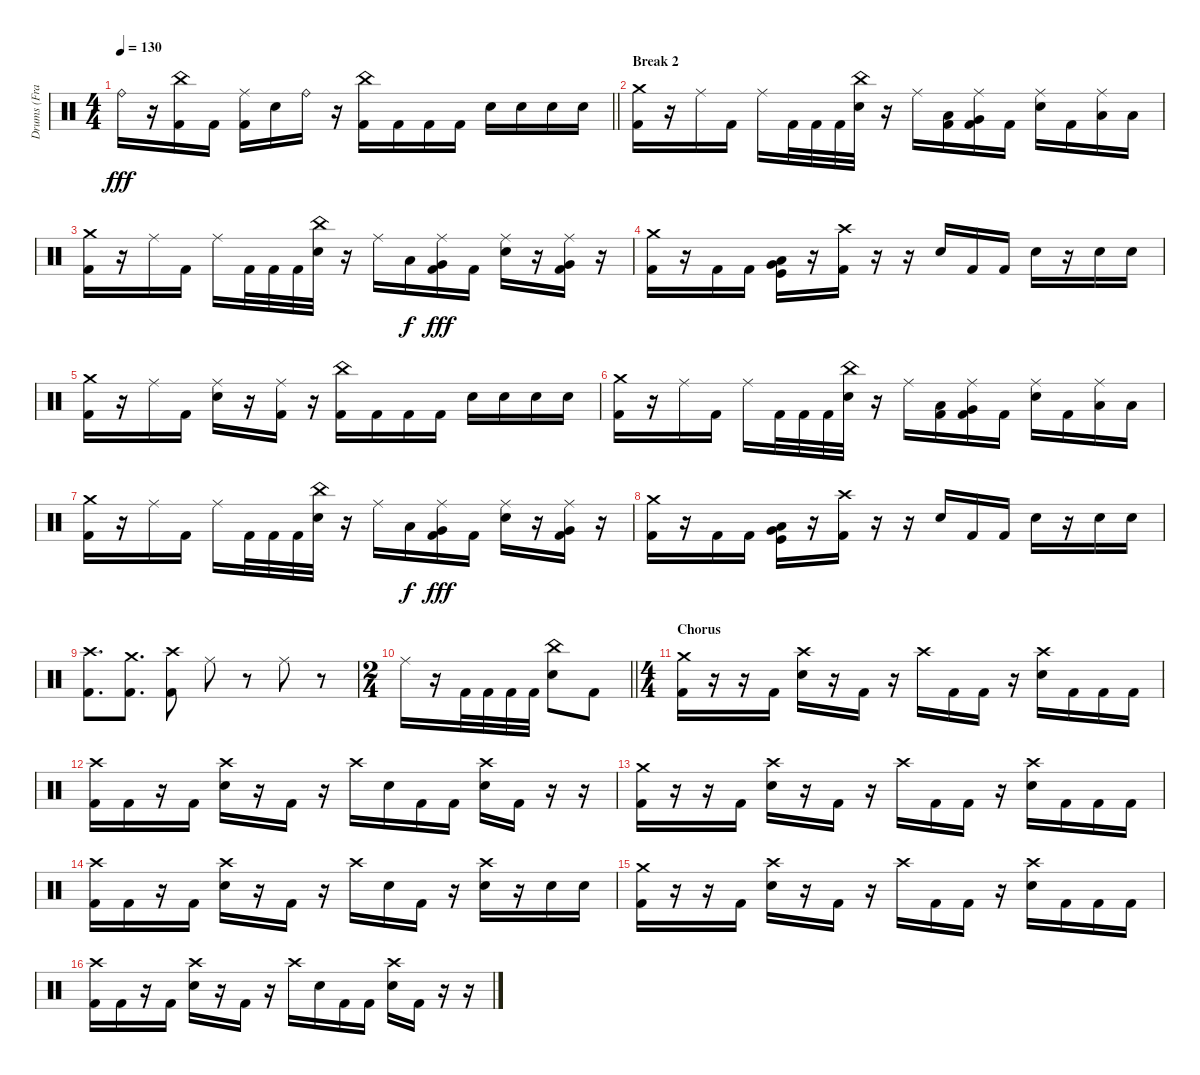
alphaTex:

\track ("Drums (Franky)" "Drums (Fra") {instrument percussion}
\staff {score}
\articulation defaults
\ts (4 4)
\tempo 130
\clef neutral
\barLineRight lightlight
\ks c "Ride (bell)".16{dy fff}
r.16 ("China (hit)" "Kick (hit) 2").16 "Kick (hit) 2".16 ("Ride (middle)" "Kick (hit) 2").16 "Electric Snare (hit)".16 "Ride (bell)".16 r.16 ("China (hit)" "Kick (hit) 2").16 "Kick (hit) 2".16 "Kick (hit) 2".16 "Kick (hit) 2".16 "Electric Snare (hit)".16 "Electric Snare (hit)".16 "Electric Snare (hit)".16 "Electric Snare (hit)".16 |
\section ("" "Break 2")
("Crash medium (hit)" "Kick (hit) 2").16 r.16 "Ride (middle)".16 "Kick (hit) 2".16 "Ride (middle)".16 "Kick (hit) 2".32 "Kick (hit) 2".32 "Kick (hit) 2".32 ("China (hit)" "Electric Snare (hit)").32 r.16 "Ride (middle)".16 ("Low Tom (hit)" "Kick (hit) 2").16 ("Ride (middle)" "Very Low Tom (hit)" "Kick (hit) 2").16 "Kick (hit) 2".16 ("Ride (middle)" "Electric Snare (hit)").16 "Kick (hit) 2".16 ("Ride (middle)" "Low Tom (hit)").16 "Low Tom (hit)".16 |
("Crash medium (hit)" "Kick (hit) 2").16 r.16 "Ride (middle)".16 "Kick (hit) 2".16 "Ride (middle)".16 "Kick (hit) 2".32 "Kick (hit) 2".32 "Kick (hit) 2".32 ("China (hit)" "Electric Snare (hit)").32 r.16 "Ride (middle)".16 "Low Tom (hit)".16{dy f} ("Ride (middle)" "Very Low Tom (hit)" "Kick (hit) 2").16{dy fff} "Kick (hit) 2".16 ("Ride (middle)" "Electric Snare (hit)").16 r.16 ("Ride (middle)" "Very Low Tom (hit)" "Kick (hit) 2").16 r.16 |
("Crash medium (hit)" "Kick (hit) 2").16 r.16 "Kick (hit) 2".16 "Kick (hit) 2".16 ("Low Tom (hit)" "Very Low Tom (hit)" "Kick (hit)").16 r.16 ("Crash high (hit)" "Kick (hit) 2").16 r.16 r.16 "Electric Snare (hit)".16 "Kick (hit) 2".16 "Kick (hit) 2".16 "Electric Snare (hit)".16 r.16 "Electric Snare (hit)".16 "Electric Snare (hit)".16 |
("Crash medium (hit)" "Kick (hit) 2").16 r.16 "Ride (middle)".16 "Kick (hit) 2".16 ("Ride (middle)" "Electric Snare (hit)").16 r.16 ("Ride (middle)" "Kick (hit) 2").16 r.16 ("China (hit)" "Kick (hit) 2").16 "Kick (hit) 2".16 "Kick (hit) 2".16 "Kick (hit) 2".16 "Electric Snare (hit)".16 "Electric Snare (hit)".16 "Electric Snare (hit)".16 "Electric Snare (hit)".16 |
("Crash medium (hit)" "Kick (hit) 2").16 r.16 "Ride (middle)".16 "Kick (hit) 2".16 "Ride (middle)".16 "Kick (hit) 2".32 "Kick (hit) 2".32 "Kick (hit) 2".32 ("China (hit)" "Electric Snare (hit)").32 r.16 "Ride (middle)".16 ("Low Tom (hit)" "Kick (hit) 2").16 ("Ride (middle)" "Very Low Tom (hit)" "Kick (hit) 2").16 "Kick (hit) 2".16 ("Ride (middle)" "Electric Snare (hit)").16 "Kick (hit) 2".16 ("Ride (middle)" "Low Tom (hit)").16 "Low Tom (hit)".16 |
("Crash medium (hit)" "Kick (hit) 2").16 r.16 "Ride (middle)".16 "Kick (hit) 2".16 "Ride (middle)".16 "Kick (hit) 2".32 "Kick (hit) 2".32 "Kick (hit) 2".32 ("China (hit)" "Electric Snare (hit)").32 r.16 "Ride (middle)".16 "Low Tom (hit)".16{dy f} ("Ride (middle)" "Very Low Tom (hit)" "Kick (hit) 2").16{dy fff} "Kick (hit) 2".16 ("Ride (middle)" "Electric Snare (hit)").16 r.16 ("Ride (middle)" "Very Low Tom (hit)" "Kick (hit) 2").16 r.16 |
("Crash medium (hit)" "Kick (hit) 2").16 r.16 "Kick (hit) 2".16 "Kick (hit) 2".16 ("Low Tom (hit)" "Very Low Tom (hit)" "Kick (hit)").16 r.16 ("Crash high (hit)" "Kick (hit) 2").16 r.16 r.16 "Electric Snare (hit)".16 "Kick (hit) 2".16 "Kick (hit) 2".16 "Electric Snare (hit)".16 r.16 "Electric Snare (hit)".16 "Electric Snare (hit)".16 |
("Crash high (hit)" "Kick (hit) 2").8{d} ("Crash medium (hit)" "Kick (hit) 2").8{d} ("Crash high (hit)" "Kick (hit) 2").8 "Ride (middle)".8 r.8 "Ride (middle)".8 r.8 |
\ts (2 4)
\barLineRight lightlight "Ride (middle)".16
r.16 "Kick (hit) 2".32 "Kick (hit) 2".32 "Kick (hit) 2".32 "Kick (hit) 2".32 ("China (hit)" "Electric Snare (hit)").8 "Kick (hit) 2".8 |
\ts (4 4)
\section ("" "Chorus")
("Crash medium (hit)" "Kick (hit) 2").16 r.16 r.16 "Kick (hit) 2".16 ("Crash high (hit)" "Electric Snare (hit)").16 r.16 "Kick (hit) 2".16 r.16 "Crash high (hit)".16 "Kick (hit) 2".16 "Kick (hit) 2".16 r.16 ("Crash high (hit)" "Electric Snare (hit)").16 "Kick (hit) 2".16 "Kick (hit) 2".16 "Kick (hit) 2".16 |
("Crash high (hit)" "Kick (hit) 2").16 "Kick (hit) 2".16 r.16 "Kick (hit) 2".16 ("Crash high (hit)" "Electric Snare (hit)").16 r.16 "Kick (hit) 2".16 r.16 "Crash high (hit)".16 "Electric Snare (hit)".16 "Kick (hit) 2".16 "Kick (hit) 2".16 ("Crash high (hit)" "Electric Snare (hit)").16 "Kick (hit) 2".16 r.16 r.16 |
("Crash medium (hit)" "Kick (hit) 2").16 r.16 r.16 "Kick (hit) 2".16 ("Crash high (hit)" "Electric Snare (hit)").16 r.16 "Kick (hit) 2".16 r.16 "Crash high (hit)".16 "Kick (hit) 2".16 "Kick (hit) 2".16 r.16 ("Crash high (hit)" "Electric Snare (hit)").16 "Kick (hit) 2".16 "Kick (hit) 2".16 "Kick (hit) 2".16 |
("Crash high (hit)" "Kick (hit) 2").16 "Kick (hit) 2".16 r.16 "Kick (hit) 2".16 ("Crash high (hit)" "Electric Snare (hit)").16 r.16 "Kick (hit) 2".16 r.16 "Crash high (hit)".16 "Electric Snare (hit)".16 "Kick (hit) 2".16 r.16 ("Crash high (hit)" "Electric Snare (hit)").16 r.16 "Electric Snare (hit)".16 "Electric Snare (hit)".16 |
("Crash medium (hit)" "Kick (hit) 2").16 r.16 r.16 "Kick (hit) 2".16 ("Crash high (hit)" "Electric Snare (hit)").16 r.16 "Kick (hit) 2".16 r.16 "Crash high (hit)".16 "Kick (hit) 2".16 "Kick (hit) 2".16 r.16 ("Crash high (hit)" "Electric Snare (hit)").16 "Kick (hit) 2".16 "Kick (hit) 2".16 "Kick (hit) 2".16 |
("Crash high (hit)" "Kick (hit) 2").16 "Kick (hit) 2".16 r.16 "Kick (hit) 2".16 ("Crash high (hit)" "Electric Snare (hit)").16 r.16 "Kick (hit) 2".16 r.16 "Crash high (hit)".16 "Electric Snare (hit)".16 "Kick (hit) 2".16 "Kick (hit) 2".16 ("Crash high (hit)" "Electric Snare (hit)").16 "Kick (hit) 2".16 r.16 r.16
